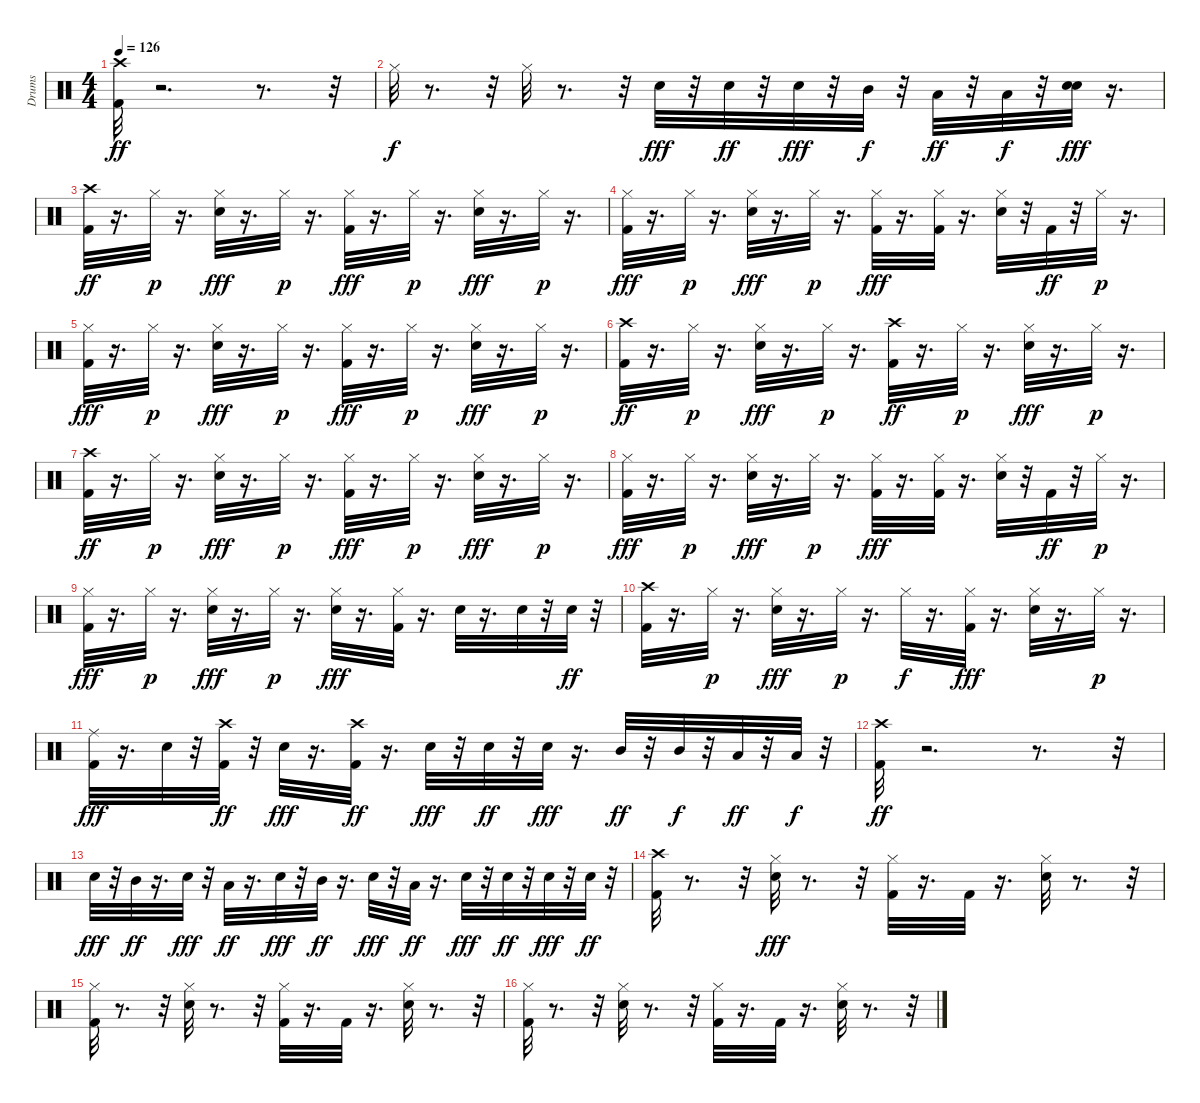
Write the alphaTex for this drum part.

\track ("Drums                               " "Drums     ") {instrument percussion}
\staff {score}
\articulation defaults
\ts (4 4)
\tempo 126
\clef neutral
\ks c
("Kick (hit) 2" "Crash high (hit)").32{dy ff} r.2{d} r.8{d} r.32 |
"Hi-Hat (closed)".32{dy f} r.8{d} r.32 "Hi-Hat (closed)".32 r.8{d} r.32 "Snare (hit) 2".32{dy fff} r.32 "Snare (hit) 2".32{dy ff} r.32 "Snare (hit) 2".32{dy fff} r.32 "Mid Tom (hit)".32{dy f} r.32 "Low Tom (hit)".32{dy ff} r.32 "Low Tom (hit)".32{dy f} r.32 ("Snare (hit) 2" "Snare (hit) 2").32{dy fff} r.16{d} |
("Kick (hit) 2" "Crash high (hit)").32{dy ff} r.16{d} "Hi-Hat (closed)".32{dy p} r.16{d} ("Snare (hit) 2" "Hi-Hat (closed)").32{dy fff} r.16{d} "Hi-Hat (closed)".32{dy p} r.16{d} ("Kick (hit) 2" "Hi-Hat (closed)").32{dy fff} r.16{d} "Hi-Hat (closed)".32{dy p} r.16{d} ("Snare (hit) 2" "Hi-Hat (closed)").32{dy fff} r.16{d} "Hi-Hat (closed)".32{dy p} r.16{d} |
("Kick (hit) 2" "Hi-Hat (closed)").32{dy fff} r.16{d} "Hi-Hat (closed)".32{dy p} r.16{d} ("Snare (hit) 2" "Hi-Hat (closed)").32{dy fff} r.16{d} "Hi-Hat (closed)".32{dy p} r.16{d} ("Kick (hit) 2" "Hi-Hat (closed)").32{dy fff} r.16{d} ("Hi-Hat (closed)" "Kick (hit) 2").32 r.16{d} ("Snare (hit) 2" "Hi-Hat (closed)").32 r.32 "Kick (hit) 2".32{dy ff} r.32 "Hi-Hat (closed)".32{dy p} r.16{d} |
("Kick (hit) 2" "Hi-Hat (closed)").32{dy fff} r.16{d} "Hi-Hat (closed)".32{dy p} r.16{d} ("Snare (hit) 2" "Hi-Hat (closed)").32{dy fff} r.16{d} "Hi-Hat (closed)".32{dy p} r.16{d} ("Kick (hit) 2" "Hi-Hat (closed)").32{dy fff} r.16{d} "Hi-Hat (closed)".32{dy p} r.16{d} ("Snare (hit) 2" "Hi-Hat (closed)").32{dy fff} r.16{d} "Hi-Hat (closed)".32{dy p} r.16{d} |
("Kick (hit) 2" "Crash high (hit)").32{dy ff} r.16{d} "Hi-Hat (closed)".32{dy p} r.16{d} ("Snare (hit) 2" "Hi-Hat (closed)").32{dy fff} r.16{d} "Hi-Hat (closed)".32{dy p} r.16{d} ("Kick (hit) 2" "Crash high (hit)").32{dy ff} r.16{d} "Hi-Hat (closed)".32{dy p} r.16{d} ("Snare (hit) 2" "Hi-Hat (closed)").32{dy fff} r.16{d} "Hi-Hat (closed)".32{dy p} r.16{d} |
("Kick (hit) 2" "Crash high (hit)").32{dy ff} r.16{d} "Hi-Hat (closed)".32{dy p} r.16{d} ("Snare (hit) 2" "Hi-Hat (closed)").32{dy fff} r.16{d} "Hi-Hat (closed)".32{dy p} r.16{d} ("Kick (hit) 2" "Hi-Hat (closed)").32{dy fff} r.16{d} "Hi-Hat (closed)".32{dy p} r.16{d} ("Snare (hit) 2" "Hi-Hat (closed)").32{dy fff} r.16{d} "Hi-Hat (closed)".32{dy p} r.16{d} |
("Kick (hit) 2" "Hi-Hat (closed)").32{dy fff} r.16{d} "Hi-Hat (closed)".32{dy p} r.16{d} ("Snare (hit) 2" "Hi-Hat (closed)").32{dy fff} r.16{d} "Hi-Hat (closed)".32{dy p} r.16{d} ("Kick (hit) 2" "Hi-Hat (closed)").32{dy fff} r.16{d} ("Hi-Hat (closed)" "Kick (hit) 2").32 r.16{d} ("Snare (hit) 2" "Hi-Hat (closed)").32 r.32 "Kick (hit) 2".32{dy ff} r.32 "Hi-Hat (closed)".32{dy p} r.16{d} |
("Kick (hit) 2" "Hi-Hat (closed)").32{dy fff} r.16{d} "Hi-Hat (closed)".32{dy p} r.16{d} ("Snare (hit) 2" "Hi-Hat (closed)").32{dy fff} r.16{d} "Hi-Hat (closed)".32{dy p} r.16{d} ("Hi-Hat (closed)" "Snare (hit) 2").32{dy fff} r.16{d} ("Hi-Hat (closed)" "Kick (hit) 2").32 r.16{d} "Snare (hit) 2".32 r.16{d} "Snare (hit) 2".32 r.32 "Snare (hit) 2".32{dy ff} r.32 |
("Kick (hit) 2" "Crash high (hit)").32 r.16{d} "Hi-Hat (closed)".32{dy p} r.16{d} ("Snare (hit) 2" "Hi-Hat (closed)").32{dy fff} r.16{d} "Hi-Hat (closed)".32{dy p} r.16{d} "Hi-Hat (closed)".32{dy f} r.16{d} ("Hi-Hat (closed)" "Kick (hit) 2").32{dy fff} r.16{d} ("Snare (hit) 2" "Hi-Hat (closed)").32 r.16{d} "Hi-Hat (closed)".32{dy p} r.16{d} |
("Kick (hit) 2" "Ride (middle)").32{dy fff} r.16{d} "Snare (hit) 2".32 r.32 ("Kick (hit) 2" "Crash high (hit)").32{dy ff} r.32 "Snare (hit) 2".32{dy fff} r.16{d} ("Kick (hit) 2" "Crash high (hit)").32{dy ff} r.16{d} "Snare (hit) 2".32{dy fff} r.32 "Snare (hit) 2".32{dy ff} r.32 "Snare (hit) 2".32{dy fff} r.16{d} "Mid Tom (hit)".32{dy ff} r.32 "Mid Tom (hit)".32{dy f} r.32 "Low Tom (hit)".32{dy ff} r.32 "Low Tom (hit)".32{dy f} r.32 |
("Kick (hit) 2" "Crash high (hit)").32{dy ff} r.2{d} r.8{d} r.32 |
"Snare (hit) 2".32{dy fff} r.32 "Mid Tom (hit)".32{dy ff} r.16{d} "Snare (hit) 2".32{dy fff} r.32 "Low Tom (hit)".32{dy ff} r.16{d} "Snare (hit) 2".32{dy fff} r.32 "Mid Tom (hit)".32{dy ff} r.16{d} "Snare (hit) 2".32{dy fff} r.32 "Low Tom (hit)".32{dy ff} r.16{d} "Snare (hit) 2".32{dy fff} r.32 "Snare (hit) 2".32{dy ff} r.32 "Snare (hit) 2".32{dy fff} r.32 "Snare (hit) 2".32{dy ff} r.32 |
("Kick (hit) 2" "Crash high (hit)").32 r.8{d} r.32 ("Snare (hit) 2" "Hi-Hat (closed)").32{dy fff} r.8{d} r.32 ("Kick (hit) 2" "Hi-Hat (closed)").32 r.16{d} "Kick (hit) 2".32 r.16{d} ("Snare (hit) 2" "Hi-Hat (closed)").32 r.8{d} r.32 |
("Kick (hit) 2" "Hi-Hat (closed)").32 r.8{d} r.32 ("Snare (hit) 2" "Hi-Hat (closed)").32 r.8{d} r.32 ("Kick (hit) 2" "Hi-Hat (closed)").32 r.16{d} "Kick (hit) 2".32 r.16{d} ("Snare (hit) 2" "Hi-Hat (closed)").32 r.8{d} r.32 |
("Kick (hit) 2" "Hi-Hat (closed)").32 r.8{d} r.32 ("Snare (hit) 2" "Hi-Hat (closed)").32 r.8{d} r.32 ("Kick (hit) 2" "Hi-Hat (closed)").32 r.16{d} "Kick (hit) 2".32 r.16{d} ("Snare (hit) 2" "Hi-Hat (closed)").32 r.8{d} r.32
